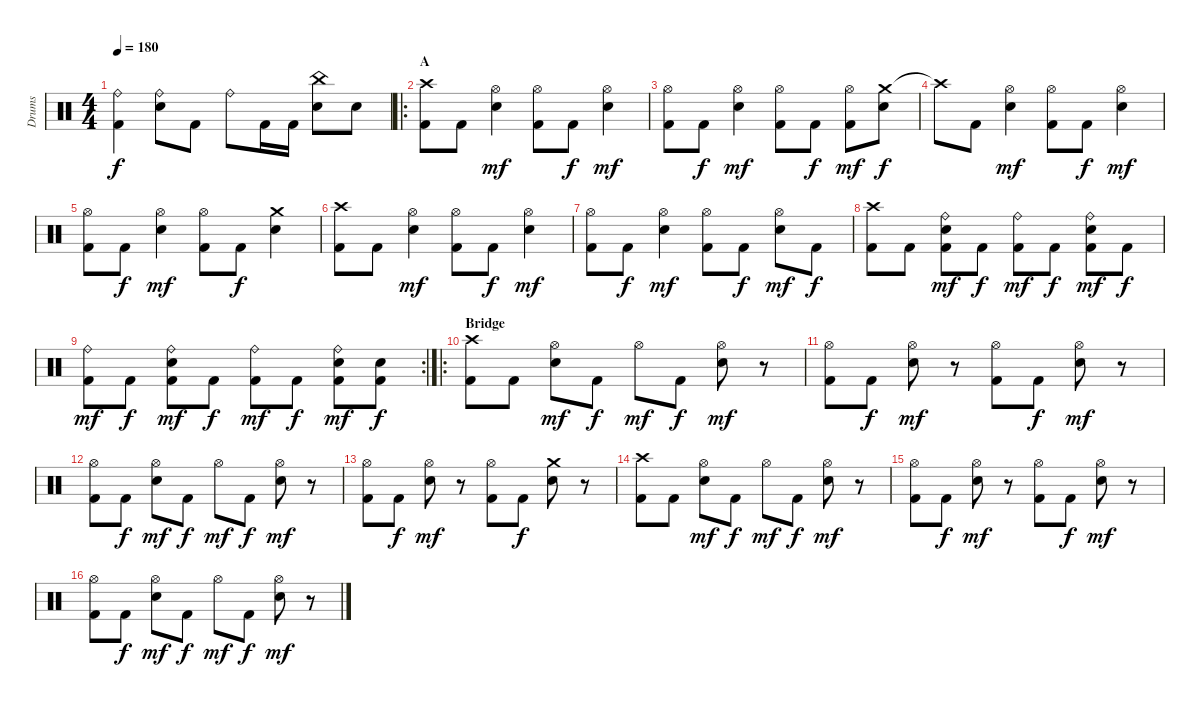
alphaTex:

\track ("Drums" "Drums") {instrument percussion}
\staff {score}
\articulation defaults
\ts (4 4)
\tempo 180
\clef neutral
\ks c
("Ride (bell)" "Kick (hit) 2").4{dy f} ("Ride (bell)" "Snare (hit) 2").8 "Kick (hit) 2".8 "Ride (bell)".8 "Kick (hit) 2".16 "Kick (hit) 2".16 ("China (hit)" "Snare (hit) 2").8 "Snare (hit) 2".8 |
\ro
\section ("" "A")
("Crash high (hit)" "Kick (hit) 2").8 "Kick (hit) 2".8 ("Hi-Hat (open)" "Snare (hit) 2").4{dy mf} ("Hi-Hat (open)" "Kick (hit) 2").8 "Kick (hit) 2".8{dy f} ("Hi-Hat (open)" "Snare (hit) 2").4{dy mf} |
("Hi-Hat (open)" "Kick (hit) 2").8 "Kick (hit) 2".8{dy f} ("Hi-Hat (open)" "Snare (hit) 2").4{dy mf} ("Hi-Hat (open)" "Kick (hit) 2").8 "Kick (hit) 2".8{dy f} ("Hi-Hat (open)" "Kick (hit) 2").8{dy mf} ("Crash medium (hit)" "Snare (hit) 2").8{dy f} |
"Crash high (hit)"{t}.8 "Kick (hit) 2".8 ("Hi-Hat (open)" "Snare (hit) 2").4{dy mf} ("Hi-Hat (open)" "Kick (hit) 2").8 "Kick (hit) 2".8{dy f} ("Hi-Hat (open)" "Snare (hit) 2").4{dy mf} |
("Hi-Hat (open)" "Kick (hit) 2").8 "Kick (hit) 2".8{dy f} ("Hi-Hat (open)" "Snare (hit) 2").4{dy mf} ("Hi-Hat (open)" "Kick (hit) 2").8 "Kick (hit) 2".8{dy f} ("Crash medium (hit)" "Snare (hit) 2").4 |
("Crash high (hit)" "Kick (hit) 2").8 "Kick (hit) 2".8 ("Hi-Hat (open)" "Snare (hit) 2").4{dy mf} ("Hi-Hat (open)" "Kick (hit) 2").8 "Kick (hit) 2".8{dy f} ("Hi-Hat (open)" "Snare (hit) 2").4{dy mf} |
("Hi-Hat (open)" "Kick (hit) 2").8 "Kick (hit) 2".8{dy f} ("Hi-Hat (open)" "Snare (hit) 2").4{dy mf} ("Hi-Hat (open)" "Kick (hit) 2").8 "Kick (hit) 2".8{dy f} ("Hi-Hat (open)" "Snare (hit) 2").8{dy mf} "Kick (hit) 2".8{dy f} |
("Crash high (hit)" "Kick (hit) 2").8 "Kick (hit) 2".8 ("Ride (bell)" "Snare (hit) 2" "Kick (hit) 2").8{dy mf} "Kick (hit) 2".8{dy f} ("Ride (bell)" "Kick (hit) 2").8{dy mf} "Kick (hit) 2".8{dy f} ("Ride (bell)" "Snare (hit) 2" "Kick (hit) 2").8{dy mf} "Kick (hit) 2".8{dy f} |
\rc 2
("Ride (bell)" "Kick (hit) 2").8{dy mf} "Kick (hit) 2".8{dy f} ("Ride (bell)" "Snare (hit) 2" "Kick (hit) 2").8{dy mf} "Kick (hit) 2".8{dy f} ("Ride (bell)" "Kick (hit) 2").8{dy mf} "Kick (hit) 2".8{dy f} ("Ride (bell)" "Snare (hit) 2" "Kick (hit) 2").8{dy mf} ("Snare (hit) 2" "Kick (hit) 2").8{dy f} |
\ro
\section ("" "Bridge")
("Crash high (hit)" "Kick (hit) 2").8 "Kick (hit) 2".8 ("Hi-Hat (open)" "Snare (hit) 2").8{dy mf} "Kick (hit) 2".8{dy f} "Hi-Hat (open)".8{dy mf} "Kick (hit) 2".8{dy f} ("Hi-Hat (open)" "Snare (hit) 2").8{dy mf} r.8 |
("Hi-Hat (open)" "Kick (hit) 2").8 "Kick (hit) 2".8{dy f} ("Hi-Hat (open)" "Snare (hit) 2").8{dy mf} r.8 ("Hi-Hat (open)" "Kick (hit) 2").8 "Kick (hit) 2".8{dy f} ("Hi-Hat (open)" "Snare (hit) 2").8{dy mf} r.8 |
("Hi-Hat (open)" "Kick (hit) 2").8 "Kick (hit) 2".8{dy f} ("Hi-Hat (open)" "Snare (hit) 2").8{dy mf} "Kick (hit) 2".8{dy f} "Hi-Hat (open)".8{dy mf} "Kick (hit) 2".8{dy f} ("Hi-Hat (open)" "Snare (hit) 2").8{dy mf} r.8 |
("Hi-Hat (open)" "Kick (hit) 2").8 "Kick (hit) 2".8{dy f} ("Hi-Hat (open)" "Snare (hit) 2").8{dy mf} r.8 ("Hi-Hat (open)" "Kick (hit) 2").8 "Kick (hit) 2".8{dy f} ("Crash medium (hit)" "Snare (hit) 2").8 r.8 |
("Crash high (hit)" "Kick (hit) 2").8 "Kick (hit) 2".8 ("Hi-Hat (open)" "Snare (hit) 2").8{dy mf} "Kick (hit) 2".8{dy f} "Hi-Hat (open)".8{dy mf} "Kick (hit) 2".8{dy f} ("Hi-Hat (open)" "Snare (hit) 2").8{dy mf} r.8 |
("Hi-Hat (open)" "Kick (hit) 2").8 "Kick (hit) 2".8{dy f} ("Hi-Hat (open)" "Snare (hit) 2").8{dy mf} r.8 ("Hi-Hat (open)" "Kick (hit) 2").8 "Kick (hit) 2".8{dy f} ("Hi-Hat (open)" "Snare (hit) 2").8{dy mf} r.8 |
("Hi-Hat (open)" "Kick (hit) 2").8 "Kick (hit) 2".8{dy f} ("Hi-Hat (open)" "Snare (hit) 2").8{dy mf} "Kick (hit) 2".8{dy f} "Hi-Hat (open)".8{dy mf} "Kick (hit) 2".8{dy f} ("Hi-Hat (open)" "Snare (hit) 2").8{dy mf} r.8
